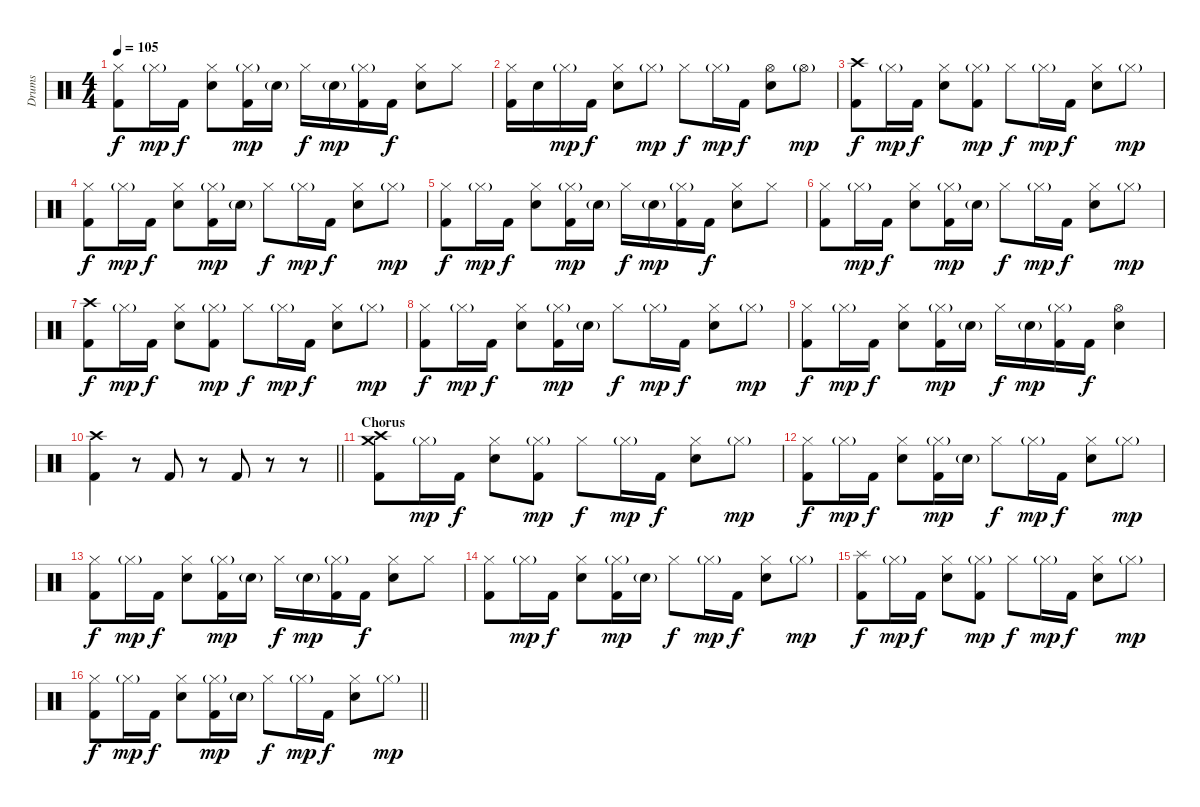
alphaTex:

\track ("Drums" "Drums") {instrument percussion}
\staff {score}
\articulation defaults
\ts (4 4)
\tempo 105
\clef neutral
\ks c
("Hi-Hat (closed)" "Kick (hit) 2").8{dy f} "Hi-Hat (closed)"{g}.16{dy mp} "Kick (hit) 2".16{dy f} ("Hi-Hat (closed)" "Electric Snare (hit)").8 ("Hi-Hat (closed)"{g} "Kick (hit) 2").16{dy mp} "Electric Snare (hit)"{g}.16 "Hi-Hat (closed)".16{dy f} "Electric Snare (hit)"{g}.16{dy mp} ("Hi-Hat (closed)"{g} "Kick (hit) 2").16 "Kick (hit) 2".16{dy f} ("Hi-Hat (closed)" "Electric Snare (hit)").8 "Hi-Hat (closed)".8 |
("Hi-Hat (closed)" "Kick (hit) 2").16 "Electric Snare (hit)".16 "Hi-Hat (closed)"{g}.16{dy mp} "Kick (hit) 2".16{dy f} ("Hi-Hat (closed)" "Electric Snare (hit)").8 "Hi-Hat (closed)"{g}.8{dy mp} "Hi-Hat (closed)".8{dy f} "Hi-Hat (closed)"{g}.16{dy mp} "Kick (hit) 2".16{dy f} ("Hi-Hat (open)" "Electric Snare (hit)").8 "Hi-Hat (open)"{g}.8{dy mp} |
("Crash high (hit)" "Kick (hit) 2").8{dy f} "Hi-Hat (closed)"{g}.16{dy mp} "Kick (hit) 2".16{dy f} ("Hi-Hat (closed)" "Electric Snare (hit)").8 ("Hi-Hat (closed)"{g} "Kick (hit) 2").8{dy mp} "Hi-Hat (closed)".8{dy f} "Hi-Hat (closed)"{g}.16{dy mp} "Kick (hit) 2".16{dy f} ("Hi-Hat (closed)" "Electric Snare (hit)").8 "Hi-Hat (closed)"{g}.8{dy mp} |
("Hi-Hat (closed)" "Kick (hit) 2").8{dy f} "Hi-Hat (closed)"{g}.16{dy mp} "Kick (hit) 2".16{dy f} ("Hi-Hat (closed)" "Electric Snare (hit)").8 ("Hi-Hat (closed)"{g} "Kick (hit) 2").16{dy mp} "Electric Snare (hit)"{g}.16 "Hi-Hat (closed)".8{dy f} "Hi-Hat (closed)"{g}.16{dy mp} "Kick (hit) 2".16{dy f} ("Hi-Hat (closed)" "Electric Snare (hit)").8 "Hi-Hat (closed)"{g}.8{dy mp} |
("Hi-Hat (closed)" "Kick (hit) 2").8{dy f} "Hi-Hat (closed)"{g}.16{dy mp} "Kick (hit) 2".16{dy f} ("Hi-Hat (closed)" "Electric Snare (hit)").8 ("Hi-Hat (closed)"{g} "Kick (hit) 2").16{dy mp} "Electric Snare (hit)"{g}.16 "Hi-Hat (closed)".16{dy f} "Electric Snare (hit)"{g}.16{dy mp} ("Hi-Hat (closed)"{g} "Kick (hit) 2").16 "Kick (hit) 2".16{dy f} ("Hi-Hat (closed)" "Electric Snare (hit)").8 "Hi-Hat (closed)".8 |
("Hi-Hat (closed)" "Kick (hit) 2").8 "Hi-Hat (closed)"{g}.16{dy mp} "Kick (hit) 2".16{dy f} ("Hi-Hat (closed)" "Electric Snare (hit)").8 ("Hi-Hat (closed)"{g} "Kick (hit) 2").16{dy mp} "Electric Snare (hit)"{g}.16 "Hi-Hat (closed)".8{dy f} "Hi-Hat (closed)"{g}.16{dy mp} "Kick (hit) 2".16{dy f} ("Hi-Hat (closed)" "Electric Snare (hit)").8 "Hi-Hat (closed)"{g}.8{dy mp} |
("Crash high (hit)" "Kick (hit) 2").8{dy f} "Hi-Hat (closed)"{g}.16{dy mp} "Kick (hit) 2".16{dy f} ("Hi-Hat (closed)" "Electric Snare (hit)").8 ("Hi-Hat (closed)"{g} "Kick (hit) 2").8{dy mp} "Hi-Hat (closed)".8{dy f} "Hi-Hat (closed)"{g}.16{dy mp} "Kick (hit) 2".16{dy f} ("Hi-Hat (closed)" "Electric Snare (hit)").8 "Hi-Hat (closed)"{g}.8{dy mp} |
("Hi-Hat (closed)" "Kick (hit) 2").8{dy f} "Hi-Hat (closed)"{g}.16{dy mp} "Kick (hit) 2".16{dy f} ("Hi-Hat (closed)" "Electric Snare (hit)").8 ("Hi-Hat (closed)"{g} "Kick (hit) 2").16{dy mp} "Electric Snare (hit)"{g}.16 "Hi-Hat (closed)".8{dy f} "Hi-Hat (closed)"{g}.16{dy mp} "Kick (hit) 2".16{dy f} ("Hi-Hat (closed)" "Electric Snare (hit)").8 "Hi-Hat (closed)"{g}.8{dy mp} |
("Hi-Hat (closed)" "Kick (hit) 2").8{dy f} "Hi-Hat (closed)"{g}.16{dy mp} "Kick (hit) 2".16{dy f} ("Hi-Hat (closed)" "Electric Snare (hit)").8 ("Hi-Hat (closed)"{g} "Kick (hit) 2").16{dy mp} "Electric Snare (hit)"{g}.16 "Hi-Hat (closed)".16{dy f} "Electric Snare (hit)"{g}.16{dy mp} ("Hi-Hat (closed)"{g} "Kick (hit) 2").16 "Kick (hit) 2".16{dy f} ("Hi-Hat (open)" "Electric Snare (hit)").4 |
\barLineRight lightlight
("Crash high (hit)" "Kick (hit) 2").4 r.8 "Kick (hit) 2".8 r.8 "Kick (hit) 2".8 r.8 r.8 |
\section ("" "Chorus")
("Crash medium (hit)" "Crash high (hit)" "Kick (hit) 2").8 "Hi-Hat (closed)"{g}.16{dy mp} "Kick (hit) 2".16{dy f} ("Hi-Hat (closed)" "Electric Snare (hit)").8 ("Hi-Hat (closed)"{g} "Kick (hit) 2").8{dy mp} "Hi-Hat (closed)".8{dy f} "Hi-Hat (closed)"{g}.16{dy mp} "Kick (hit) 2".16{dy f} ("Hi-Hat (closed)" "Electric Snare (hit)").8 "Hi-Hat (closed)"{g}.8{dy mp} |
("Hi-Hat (closed)" "Kick (hit) 2").8{dy f} "Hi-Hat (closed)"{g}.16{dy mp} "Kick (hit) 2".16{dy f} ("Hi-Hat (closed)" "Electric Snare (hit)").8 ("Hi-Hat (closed)"{g} "Kick (hit) 2").16{dy mp} "Electric Snare (hit)"{g}.16 "Hi-Hat (closed)".8{dy f} "Hi-Hat (closed)"{g}.16{dy mp} "Kick (hit) 2".16{dy f} ("Hi-Hat (closed)" "Electric Snare (hit)").8 "Hi-Hat (closed)"{g}.8{dy mp} |
("Hi-Hat (closed)" "Kick (hit) 2").8{dy f} "Hi-Hat (closed)"{g}.16{dy mp} "Kick (hit) 2".16{dy f} ("Hi-Hat (closed)" "Electric Snare (hit)").8 ("Hi-Hat (closed)"{g} "Kick (hit) 2").16{dy mp} "Electric Snare (hit)"{g}.16 "Hi-Hat (closed)".16{dy f} "Electric Snare (hit)"{g}.16{dy mp} ("Hi-Hat (closed)"{g} "Kick (hit) 2").16 "Kick (hit) 2".16{dy f} ("Hi-Hat (closed)" "Electric Snare (hit)").8 "Hi-Hat (closed)".8 |
("Hi-Hat (closed)" "Kick (hit) 2").8 "Hi-Hat (closed)"{g}.16{dy mp} "Kick (hit) 2".16{dy f} ("Hi-Hat (closed)" "Electric Snare (hit)").8 ("Hi-Hat (closed)"{g} "Kick (hit) 2").16{dy mp} "Electric Snare (hit)"{g}.16 "Hi-Hat (closed)".8{dy f} "Hi-Hat (closed)"{g}.16{dy mp} "Kick (hit) 2".16{dy f} ("Hi-Hat (closed)" "Electric Snare (hit)").8 "Hi-Hat (closed)"{g}.8{dy mp} |
("Splash (hit)" "Kick (hit) 2").8{dy f} "Hi-Hat (closed)"{g}.16{dy mp} "Kick (hit) 2".16{dy f} ("Hi-Hat (closed)" "Electric Snare (hit)").8 ("Hi-Hat (closed)"{g} "Kick (hit) 2").8{dy mp} "Hi-Hat (closed)".8{dy f} "Hi-Hat (closed)"{g}.16{dy mp} "Kick (hit) 2".16{dy f} ("Hi-Hat (closed)" "Electric Snare (hit)").8 "Hi-Hat (closed)"{g}.8{dy mp} |
\barLineRight lightlight
("Hi-Hat (closed)" "Kick (hit) 2").8{dy f} "Hi-Hat (closed)"{g}.16{dy mp} "Kick (hit) 2".16{dy f} ("Hi-Hat (closed)" "Electric Snare (hit)").8 ("Hi-Hat (closed)"{g} "Kick (hit) 2").16{dy mp} "Electric Snare (hit)"{g}.16 "Hi-Hat (closed)".8{dy f} "Hi-Hat (closed)"{g}.16{dy mp} "Kick (hit) 2".16{dy f} ("Hi-Hat (closed)" "Electric Snare (hit)").8 "Hi-Hat (closed)"{g}.8{dy mp}
